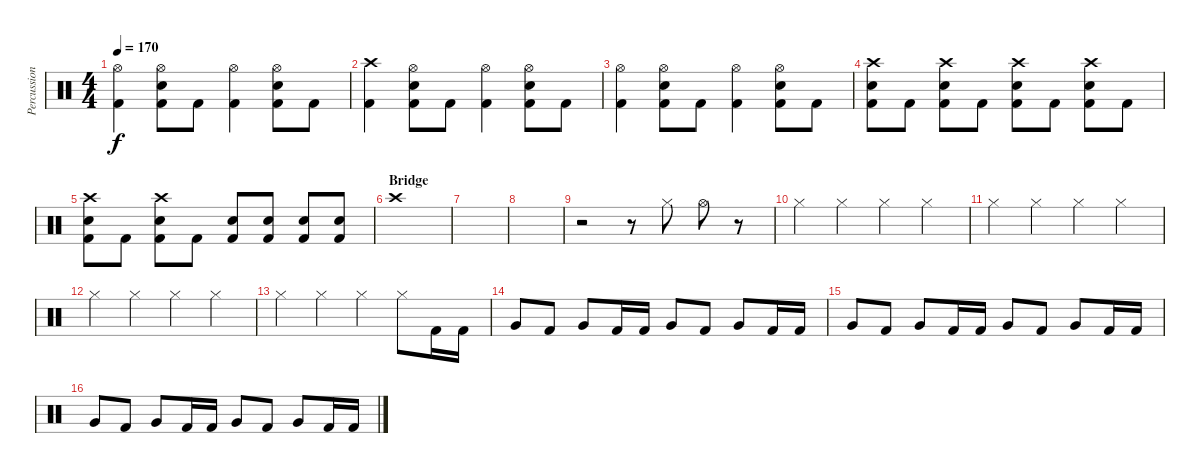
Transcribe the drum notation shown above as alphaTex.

\track ("Percussion" "Percussion") {instrument percussion}
\staff {score}
\articulation defaults
\ts (4 4)
\tempo 170
\clef neutral
\ks c
("Hi-Hat (open)" "Kick (hit) 2").4{dy f} ("Hi-Hat (open)" "Snare (hit) 2" "Kick (hit) 2").8 "Kick (hit) 2".8 ("Hi-Hat (open)" "Kick (hit) 2").4 ("Hi-Hat (open)" "Snare (hit) 2" "Kick (hit) 2").8 "Kick (hit) 2".8 |
("Crash high (hit)" "Kick (hit) 2").4 ("Hi-Hat (open)" "Snare (hit) 2" "Kick (hit) 2").8 "Kick (hit) 2".8 ("Hi-Hat (open)" "Kick (hit) 2").4 ("Hi-Hat (open)" "Snare (hit) 2" "Kick (hit) 2").8 "Kick (hit) 2".8 |
("Hi-Hat (open)" "Kick (hit) 2").4 ("Hi-Hat (open)" "Snare (hit) 2" "Kick (hit) 2").8 "Kick (hit) 2".8 ("Hi-Hat (open)" "Kick (hit) 2").4 ("Hi-Hat (open)" "Snare (hit) 2" "Kick (hit) 2").8 "Kick (hit) 2".8 |
("Crash high (hit)" "Snare (hit) 2" "Kick (hit) 2").8 "Kick (hit) 2".8 ("Crash high (hit)" "Snare (hit) 2" "Kick (hit) 2").8 "Kick (hit) 2".8 ("Crash high (hit)" "Snare (hit) 2" "Kick (hit) 2").8 "Kick (hit) 2".8 ("Crash high (hit)" "Snare (hit) 2" "Kick (hit) 2").8 "Kick (hit) 2".8 |
("Crash high (hit)" "Snare (hit) 2" "Kick (hit) 2").8 "Kick (hit) 2".8 ("Crash high (hit)" "Snare (hit) 2" "Kick (hit) 2").8 "Kick (hit) 2".8 ("Snare (hit) 2" "Kick (hit) 2").8 ("Snare (hit) 2" "Kick (hit) 2").8 ("Snare (hit) 2" "Kick (hit) 2").8 ("Snare (hit) 2" "Kick (hit) 2").8 |
\section ("" "Bridge")
"Crash high (hit)".1 |
|
|
r.2 r.8 "Hi-Hat (closed)".8 "Hi-Hat (open)".8 r.8 |
"Hi-Hat (closed)".4 "Hi-Hat (closed)".4 "Hi-Hat (closed)".4 "Hi-Hat (closed)".4 |
"Hi-Hat (closed)".4 "Hi-Hat (closed)".4 "Hi-Hat (closed)".4 "Hi-Hat (closed)".4 |
"Hi-Hat (closed)".4 "Hi-Hat (closed)".4 "Hi-Hat (closed)".4 "Hi-Hat (closed)".4 |
"Hi-Hat (closed)".4 "Hi-Hat (closed)".4 "Hi-Hat (closed)".4 "Hi-Hat (closed)".8 "Kick (hit) 2".16 "Kick (hit) 2".16 |
"Very Low Tom (hit)".8 "Kick (hit) 2".8 "Very Low Tom (hit)".8 "Kick (hit) 2".16 "Kick (hit) 2".16 "Very Low Tom (hit)".8 "Kick (hit) 2".8 "Very Low Tom (hit)".8 "Kick (hit) 2".16 "Kick (hit) 2".16 |
"Very Low Tom (hit)".8 "Kick (hit) 2".8 "Very Low Tom (hit)".8 "Kick (hit) 2".16 "Kick (hit) 2".16 "Very Low Tom (hit)".8 "Kick (hit) 2".8 "Very Low Tom (hit)".8 "Kick (hit) 2".16 "Kick (hit) 2".16 |
"Very Low Tom (hit)".8 "Kick (hit) 2".8 "Very Low Tom (hit)".8 "Kick (hit) 2".16 "Kick (hit) 2".16 "Very Low Tom (hit)".8 "Kick (hit) 2".8 "Very Low Tom (hit)".8 "Kick (hit) 2".16 "Kick (hit) 2".16
